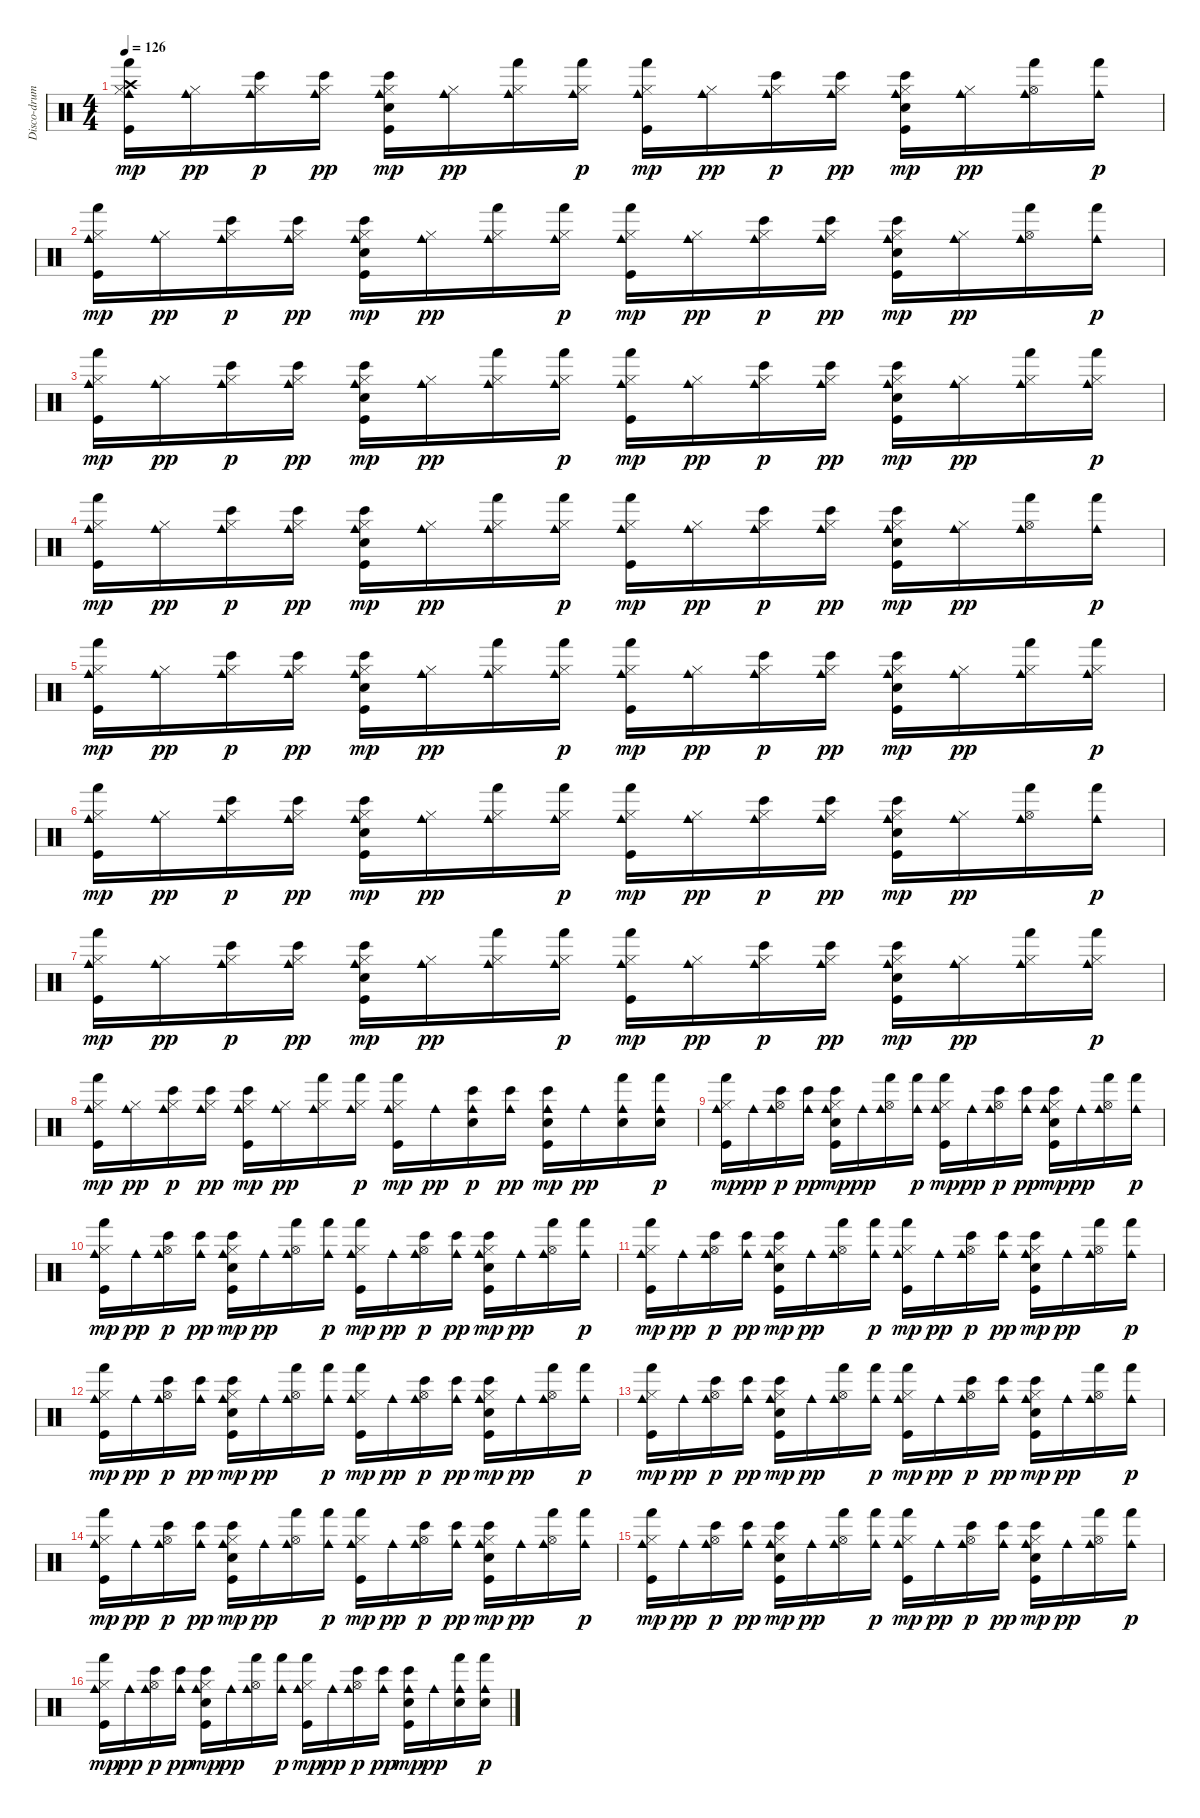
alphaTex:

\track ("Disco-drums !" "Disco-drum") {instrument percussion}
\staff {score}
\articulation defaults
\ts (4 4)
\tempo 126
\clef neutral
\ks c
("Hi-Hat (closed)" "Kick (hit)" "Crash high (hit)" "Cowbell medium (hit)" "Hand (hit)").16{dy mp} ("Hi-Hat (closed)" "Cowbell medium (hit)").16{dy pp} ("Hi-Hat (closed)" "Cowbell medium (hit)" "Bongo High (hit)").16{dy p} ("Hi-Hat (closed)" "Cowbell medium (hit)" "Bongo High (hit)").16{dy pp} ("Hi-Hat (closed)" "Kick (hit)" "Snare (hit) 2" "Cowbell medium (hit)" "Bongo High (hit)").16{dy mp} ("Hi-Hat (closed)" "Cowbell medium (hit)").16{dy pp} ("Hi-Hat (closed)" "Cowbell medium (hit)" "Hand (hit)").16 ("Hi-Hat (closed)" "Cowbell medium (hit)" "Hand (hit)").16{dy p} ("Hi-Hat (closed)" "Kick (hit)" "Cowbell medium (hit)" "Hand (hit)").16{dy mp} ("Hi-Hat (closed)" "Cowbell medium (hit)").16{dy pp} ("Hi-Hat (closed)" "Cowbell medium (hit)" "Bongo High (hit)").16{dy p} ("Hi-Hat (closed)" "Cowbell medium (hit)" "Bongo High (hit)").16{dy pp} ("Hi-Hat (closed)" "Kick (hit)" "Snare (hit) 2" "Cowbell medium (hit)" "Bongo High (hit)").16{dy mp} ("Hi-Hat (closed)" "Cowbell medium (hit)").16{dy pp} ("Hi-Hat (open)" "Cowbell medium (hit)" "Hand (hit)").16 ("Cowbell medium (hit)" "Hand (hit)").16{dy p} |
("Hi-Hat (closed)" "Kick (hit)" "Cowbell medium (hit)" "Hand (hit)").16{dy mp} ("Hi-Hat (closed)" "Cowbell medium (hit)").16{dy pp} ("Hi-Hat (closed)" "Cowbell medium (hit)" "Bongo High (hit)").16{dy p} ("Hi-Hat (closed)" "Cowbell medium (hit)" "Bongo High (hit)").16{dy pp} ("Hi-Hat (closed)" "Kick (hit)" "Snare (hit) 2" "Cowbell medium (hit)" "Bongo High (hit)").16{dy mp} ("Hi-Hat (closed)" "Cowbell medium (hit)").16{dy pp} ("Hi-Hat (closed)" "Cowbell medium (hit)" "Hand (hit)").16 ("Hi-Hat (closed)" "Cowbell medium (hit)" "Hand (hit)").16{dy p} ("Hi-Hat (closed)" "Kick (hit)" "Cowbell medium (hit)" "Hand (hit)").16{dy mp} ("Hi-Hat (closed)" "Cowbell medium (hit)").16{dy pp} ("Hi-Hat (closed)" "Cowbell medium (hit)" "Bongo High (hit)").16{dy p} ("Hi-Hat (closed)" "Cowbell medium (hit)" "Bongo High (hit)").16{dy pp} ("Hi-Hat (closed)" "Kick (hit)" "Snare (hit) 2" "Cowbell medium (hit)" "Bongo High (hit)").16{dy mp} ("Hi-Hat (closed)" "Cowbell medium (hit)").16{dy pp} ("Hi-Hat (open)" "Cowbell medium (hit)" "Hand (hit)").16 ("Cowbell medium (hit)" "Hand (hit)").16{dy p} |
("Hi-Hat (closed)" "Kick (hit)" "Cowbell medium (hit)" "Hand (hit)").16{dy mp} ("Hi-Hat (closed)" "Cowbell medium (hit)").16{dy pp} ("Hi-Hat (closed)" "Cowbell medium (hit)" "Bongo High (hit)").16{dy p} ("Hi-Hat (closed)" "Cowbell medium (hit)" "Bongo High (hit)").16{dy pp} ("Hi-Hat (closed)" "Kick (hit)" "Snare (hit) 2" "Cowbell medium (hit)" "Bongo High (hit)").16{dy mp} ("Hi-Hat (closed)" "Cowbell medium (hit)").16{dy pp} ("Hi-Hat (closed)" "Cowbell medium (hit)" "Hand (hit)").16 ("Hi-Hat (closed)" "Cowbell medium (hit)" "Hand (hit)").16{dy p} ("Hi-Hat (closed)" "Kick (hit)" "Cowbell medium (hit)" "Hand (hit)").16{dy mp} ("Hi-Hat (closed)" "Cowbell medium (hit)").16{dy pp} ("Hi-Hat (closed)" "Cowbell medium (hit)" "Bongo High (hit)").16{dy p} ("Hi-Hat (closed)" "Cowbell medium (hit)" "Bongo High (hit)").16{dy pp} ("Hi-Hat (closed)" "Kick (hit)" "Snare (hit) 2" "Cowbell medium (hit)" "Bongo High (hit)").16{dy mp} ("Hi-Hat (closed)" "Cowbell medium (hit)").16{dy pp} ("Hi-Hat (closed)" "Cowbell medium (hit)" "Hand (hit)").16 ("Hi-Hat (closed)" "Cowbell medium (hit)" "Hand (hit)").16{dy p} |
("Hi-Hat (closed)" "Kick (hit)" "Cowbell medium (hit)" "Hand (hit)").16{dy mp} ("Hi-Hat (closed)" "Cowbell medium (hit)").16{dy pp} ("Hi-Hat (closed)" "Cowbell medium (hit)" "Bongo High (hit)").16{dy p} ("Hi-Hat (closed)" "Cowbell medium (hit)" "Bongo High (hit)").16{dy pp} ("Hi-Hat (closed)" "Kick (hit)" "Snare (hit) 2" "Cowbell medium (hit)" "Bongo High (hit)").16{dy mp} ("Hi-Hat (closed)" "Cowbell medium (hit)").16{dy pp} ("Hi-Hat (closed)" "Cowbell medium (hit)" "Hand (hit)").16 ("Hi-Hat (closed)" "Cowbell medium (hit)" "Hand (hit)").16{dy p} ("Hi-Hat (closed)" "Kick (hit)" "Cowbell medium (hit)" "Hand (hit)").16{dy mp} ("Hi-Hat (closed)" "Cowbell medium (hit)").16{dy pp} ("Hi-Hat (closed)" "Cowbell medium (hit)" "Bongo High (hit)").16{dy p} ("Hi-Hat (closed)" "Cowbell medium (hit)" "Bongo High (hit)").16{dy pp} ("Hi-Hat (closed)" "Kick (hit)" "Snare (hit) 2" "Cowbell medium (hit)" "Bongo High (hit)").16{dy mp} ("Hi-Hat (closed)" "Cowbell medium (hit)").16{dy pp} ("Hi-Hat (open)" "Cowbell medium (hit)" "Hand (hit)").16 ("Cowbell medium (hit)" "Hand (hit)").16{dy p} |
("Hi-Hat (closed)" "Kick (hit)" "Cowbell medium (hit)" "Hand (hit)").16{dy mp} ("Hi-Hat (closed)" "Cowbell medium (hit)").16{dy pp} ("Hi-Hat (closed)" "Cowbell medium (hit)" "Bongo High (hit)").16{dy p} ("Hi-Hat (closed)" "Cowbell medium (hit)" "Bongo High (hit)").16{dy pp} ("Hi-Hat (closed)" "Kick (hit)" "Snare (hit) 2" "Cowbell medium (hit)" "Bongo High (hit)").16{dy mp} ("Hi-Hat (closed)" "Cowbell medium (hit)").16{dy pp} ("Hi-Hat (closed)" "Cowbell medium (hit)" "Hand (hit)").16 ("Hi-Hat (closed)" "Cowbell medium (hit)" "Hand (hit)").16{dy p} ("Hi-Hat (closed)" "Kick (hit)" "Cowbell medium (hit)" "Hand (hit)").16{dy mp} ("Hi-Hat (closed)" "Cowbell medium (hit)").16{dy pp} ("Hi-Hat (closed)" "Cowbell medium (hit)" "Bongo High (hit)").16{dy p} ("Hi-Hat (closed)" "Cowbell medium (hit)" "Bongo High (hit)").16{dy pp} ("Hi-Hat (closed)" "Kick (hit)" "Snare (hit) 2" "Cowbell medium (hit)" "Bongo High (hit)").16{dy mp} ("Hi-Hat (closed)" "Cowbell medium (hit)").16{dy pp} ("Hi-Hat (closed)" "Cowbell medium (hit)" "Hand (hit)").16 ("Hi-Hat (closed)" "Cowbell medium (hit)" "Hand (hit)").16{dy p} |
("Hi-Hat (closed)" "Kick (hit)" "Cowbell medium (hit)" "Hand (hit)").16{dy mp} ("Hi-Hat (closed)" "Cowbell medium (hit)").16{dy pp} ("Hi-Hat (closed)" "Cowbell medium (hit)" "Bongo High (hit)").16{dy p} ("Hi-Hat (closed)" "Cowbell medium (hit)" "Bongo High (hit)").16{dy pp} ("Hi-Hat (closed)" "Kick (hit)" "Snare (hit) 2" "Cowbell medium (hit)" "Bongo High (hit)").16{dy mp} ("Hi-Hat (closed)" "Cowbell medium (hit)").16{dy pp} ("Hi-Hat (closed)" "Cowbell medium (hit)" "Hand (hit)").16 ("Hi-Hat (closed)" "Cowbell medium (hit)" "Hand (hit)").16{dy p} ("Hi-Hat (closed)" "Kick (hit)" "Cowbell medium (hit)" "Hand (hit)").16{dy mp} ("Hi-Hat (closed)" "Cowbell medium (hit)").16{dy pp} ("Hi-Hat (closed)" "Cowbell medium (hit)" "Bongo High (hit)").16{dy p} ("Hi-Hat (closed)" "Cowbell medium (hit)" "Bongo High (hit)").16{dy pp} ("Hi-Hat (closed)" "Kick (hit)" "Snare (hit) 2" "Cowbell medium (hit)" "Bongo High (hit)").16{dy mp} ("Hi-Hat (closed)" "Cowbell medium (hit)").16{dy pp} ("Hi-Hat (open)" "Cowbell medium (hit)" "Hand (hit)").16 ("Cowbell medium (hit)" "Hand (hit)").16{dy p} |
("Hi-Hat (closed)" "Kick (hit)" "Cowbell medium (hit)" "Hand (hit)").16{dy mp} ("Hi-Hat (closed)" "Cowbell medium (hit)").16{dy pp} ("Hi-Hat (closed)" "Cowbell medium (hit)" "Bongo High (hit)").16{dy p} ("Hi-Hat (closed)" "Cowbell medium (hit)" "Bongo High (hit)").16{dy pp} ("Hi-Hat (closed)" "Kick (hit)" "Snare (hit) 2" "Cowbell medium (hit)" "Bongo High (hit)").16{dy mp} ("Hi-Hat (closed)" "Cowbell medium (hit)").16{dy pp} ("Hi-Hat (closed)" "Cowbell medium (hit)" "Hand (hit)").16 ("Hi-Hat (closed)" "Cowbell medium (hit)" "Hand (hit)").16{dy p} ("Hi-Hat (closed)" "Kick (hit)" "Cowbell medium (hit)" "Hand (hit)").16{dy mp} ("Hi-Hat (closed)" "Cowbell medium (hit)").16{dy pp} ("Hi-Hat (closed)" "Cowbell medium (hit)" "Bongo High (hit)").16{dy p} ("Hi-Hat (closed)" "Cowbell medium (hit)" "Bongo High (hit)").16{dy pp} ("Hi-Hat (closed)" "Kick (hit)" "Snare (hit) 2" "Cowbell medium (hit)" "Bongo High (hit)").16{dy mp} ("Hi-Hat (closed)" "Cowbell medium (hit)").16{dy pp} ("Hi-Hat (closed)" "Cowbell medium (hit)" "Hand (hit)").16 ("Hi-Hat (closed)" "Cowbell medium (hit)" "Hand (hit)").16{dy p} |
("Hi-Hat (closed)" "Kick (hit)" "Cowbell medium (hit)" "Hand (hit)").16{dy mp} ("Hi-Hat (closed)" "Cowbell medium (hit)").16{dy pp} ("Hi-Hat (closed)" "Cowbell medium (hit)" "Bongo High (hit)").16{dy p} ("Hi-Hat (closed)" "Cowbell medium (hit)" "Bongo High (hit)").16{dy pp} ("Hi-Hat (closed)" "Kick (hit)" "Cowbell medium (hit)" "Bongo High (hit)").16{dy mp} ("Hi-Hat (closed)" "Cowbell medium (hit)").16{dy pp} ("Hi-Hat (closed)" "Cowbell medium (hit)" "Hand (hit)").16 ("Hi-Hat (closed)" "Cowbell medium (hit)" "Hand (hit)").16{dy p} ("Hi-Hat (closed)" "Kick (hit)" "Cowbell medium (hit)" "Hand (hit)").16{dy mp} "Cowbell medium (hit)".16{dy pp} ("Snare (hit) 2" "Cowbell medium (hit)" "Bongo High (hit)").16{dy p} ("Cowbell medium (hit)" "Bongo High (hit)").16{dy pp} ("Kick (hit)" "Snare (hit) 2" "Cowbell medium (hit)" "Bongo High (hit)").16{dy mp} "Cowbell medium (hit)".16{dy pp} ("Snare (hit) 2" "Cowbell medium (hit)" "Hand (hit)").16 ("Snare (hit) 2" "Cowbell medium (hit)" "Hand (hit)").16{dy p} |
("Hi-Hat (closed)" "Kick (hit)" "Cowbell medium (hit)" "Hand (hit)").16{dy mp} "Cowbell medium (hit)".16{dy pp} ("Hi-Hat (open)" "Cowbell medium (hit)" "Bongo High (hit)").16{dy p} ("Cowbell medium (hit)" "Bongo High (hit)").16{dy pp} ("Hi-Hat (closed)" "Kick (hit)" "Snare (hit) 2" "Cowbell medium (hit)" "Bongo High (hit)").16{dy mp} "Cowbell medium (hit)".16{dy pp} ("Hi-Hat (open)" "Cowbell medium (hit)" "Hand (hit)").16 ("Cowbell medium (hit)" "Hand (hit)").16{dy p} ("Hi-Hat (closed)" "Kick (hit)" "Cowbell medium (hit)" "Hand (hit)").16{dy mp} "Cowbell medium (hit)".16{dy pp} ("Hi-Hat (open)" "Cowbell medium (hit)" "Bongo High (hit)").16{dy p} ("Cowbell medium (hit)" "Bongo High (hit)").16{dy pp} ("Hi-Hat (closed)" "Kick (hit)" "Snare (hit) 2" "Cowbell medium (hit)" "Bongo High (hit)").16{dy mp} "Cowbell medium (hit)".16{dy pp} ("Hi-Hat (open)" "Cowbell medium (hit)" "Hand (hit)").16 ("Cowbell medium (hit)" "Hand (hit)").16{dy p} |
("Hi-Hat (closed)" "Kick (hit)" "Cowbell medium (hit)" "Hand (hit)").16{dy mp} "Cowbell medium (hit)".16{dy pp} ("Hi-Hat (open)" "Cowbell medium (hit)" "Bongo High (hit)").16{dy p} ("Cowbell medium (hit)" "Bongo High (hit)").16{dy pp} ("Hi-Hat (closed)" "Kick (hit)" "Snare (hit) 2" "Cowbell medium (hit)" "Bongo High (hit)").16{dy mp} "Cowbell medium (hit)".16{dy pp} ("Hi-Hat (open)" "Cowbell medium (hit)" "Hand (hit)").16 ("Cowbell medium (hit)" "Hand (hit)").16{dy p} ("Hi-Hat (closed)" "Kick (hit)" "Cowbell medium (hit)" "Hand (hit)").16{dy mp} "Cowbell medium (hit)".16{dy pp} ("Hi-Hat (open)" "Cowbell medium (hit)" "Bongo High (hit)").16{dy p} ("Cowbell medium (hit)" "Bongo High (hit)").16{dy pp} ("Hi-Hat (closed)" "Kick (hit)" "Snare (hit) 2" "Cowbell medium (hit)" "Bongo High (hit)").16{dy mp} "Cowbell medium (hit)".16{dy pp} ("Hi-Hat (open)" "Cowbell medium (hit)" "Hand (hit)").16 ("Cowbell medium (hit)" "Hand (hit)").16{dy p} |
("Hi-Hat (closed)" "Kick (hit)" "Cowbell medium (hit)" "Hand (hit)").16{dy mp} "Cowbell medium (hit)".16{dy pp} ("Hi-Hat (open)" "Cowbell medium (hit)" "Bongo High (hit)").16{dy p} ("Cowbell medium (hit)" "Bongo High (hit)").16{dy pp} ("Hi-Hat (closed)" "Kick (hit)" "Snare (hit) 2" "Cowbell medium (hit)" "Bongo High (hit)").16{dy mp} "Cowbell medium (hit)".16{dy pp} ("Hi-Hat (open)" "Cowbell medium (hit)" "Hand (hit)").16 ("Cowbell medium (hit)" "Hand (hit)").16{dy p} ("Hi-Hat (closed)" "Kick (hit)" "Cowbell medium (hit)" "Hand (hit)").16{dy mp} "Cowbell medium (hit)".16{dy pp} ("Hi-Hat (open)" "Cowbell medium (hit)" "Bongo High (hit)").16{dy p} ("Cowbell medium (hit)" "Bongo High (hit)").16{dy pp} ("Hi-Hat (closed)" "Kick (hit)" "Snare (hit) 2" "Cowbell medium (hit)" "Bongo High (hit)").16{dy mp} "Cowbell medium (hit)".16{dy pp} ("Hi-Hat (open)" "Cowbell medium (hit)" "Hand (hit)").16 ("Cowbell medium (hit)" "Hand (hit)").16{dy p} |
("Hi-Hat (closed)" "Kick (hit)" "Cowbell medium (hit)" "Hand (hit)").16{dy mp} "Cowbell medium (hit)".16{dy pp} ("Hi-Hat (open)" "Cowbell medium (hit)" "Bongo High (hit)").16{dy p} ("Cowbell medium (hit)" "Bongo High (hit)").16{dy pp} ("Hi-Hat (closed)" "Kick (hit)" "Snare (hit) 2" "Cowbell medium (hit)" "Bongo High (hit)").16{dy mp} "Cowbell medium (hit)".16{dy pp} ("Hi-Hat (open)" "Cowbell medium (hit)" "Hand (hit)").16 ("Cowbell medium (hit)" "Hand (hit)").16{dy p} ("Hi-Hat (closed)" "Kick (hit)" "Cowbell medium (hit)" "Hand (hit)").16{dy mp} "Cowbell medium (hit)".16{dy pp} ("Hi-Hat (open)" "Cowbell medium (hit)" "Bongo High (hit)").16{dy p} ("Cowbell medium (hit)" "Bongo High (hit)").16{dy pp} ("Hi-Hat (closed)" "Kick (hit)" "Snare (hit) 2" "Cowbell medium (hit)" "Bongo High (hit)").16{dy mp} "Cowbell medium (hit)".16{dy pp} ("Hi-Hat (open)" "Cowbell medium (hit)" "Hand (hit)").16 ("Cowbell medium (hit)" "Hand (hit)").16{dy p} |
("Hi-Hat (closed)" "Kick (hit)" "Cowbell medium (hit)" "Hand (hit)").16{dy mp} "Cowbell medium (hit)".16{dy pp} ("Hi-Hat (open)" "Cowbell medium (hit)" "Bongo High (hit)").16{dy p} ("Cowbell medium (hit)" "Bongo High (hit)").16{dy pp} ("Hi-Hat (closed)" "Kick (hit)" "Snare (hit) 2" "Cowbell medium (hit)" "Bongo High (hit)").16{dy mp} "Cowbell medium (hit)".16{dy pp} ("Hi-Hat (open)" "Cowbell medium (hit)" "Hand (hit)").16 ("Cowbell medium (hit)" "Hand (hit)").16{dy p} ("Hi-Hat (closed)" "Kick (hit)" "Cowbell medium (hit)" "Hand (hit)").16{dy mp} "Cowbell medium (hit)".16{dy pp} ("Hi-Hat (open)" "Cowbell medium (hit)" "Bongo High (hit)").16{dy p} ("Cowbell medium (hit)" "Bongo High (hit)").16{dy pp} ("Hi-Hat (closed)" "Kick (hit)" "Snare (hit) 2" "Cowbell medium (hit)" "Bongo High (hit)").16{dy mp} "Cowbell medium (hit)".16{dy pp} ("Hi-Hat (open)" "Cowbell medium (hit)" "Hand (hit)").16 ("Cowbell medium (hit)" "Hand (hit)").16{dy p} |
("Hi-Hat (closed)" "Kick (hit)" "Cowbell medium (hit)" "Hand (hit)").16{dy mp} "Cowbell medium (hit)".16{dy pp} ("Hi-Hat (open)" "Cowbell medium (hit)" "Bongo High (hit)").16{dy p} ("Cowbell medium (hit)" "Bongo High (hit)").16{dy pp} ("Hi-Hat (closed)" "Kick (hit)" "Snare (hit) 2" "Cowbell medium (hit)" "Bongo High (hit)").16{dy mp} "Cowbell medium (hit)".16{dy pp} ("Hi-Hat (open)" "Cowbell medium (hit)" "Hand (hit)").16 ("Cowbell medium (hit)" "Hand (hit)").16{dy p} ("Hi-Hat (closed)" "Kick (hit)" "Cowbell medium (hit)" "Hand (hit)").16{dy mp} "Cowbell medium (hit)".16{dy pp} ("Hi-Hat (open)" "Cowbell medium (hit)" "Bongo High (hit)").16{dy p} ("Cowbell medium (hit)" "Bongo High (hit)").16{dy pp} ("Hi-Hat (closed)" "Kick (hit)" "Snare (hit) 2" "Cowbell medium (hit)" "Bongo High (hit)").16{dy mp} "Cowbell medium (hit)".16{dy pp} ("Hi-Hat (open)" "Cowbell medium (hit)" "Hand (hit)").16 ("Cowbell medium (hit)" "Hand (hit)").16{dy p} |
("Hi-Hat (closed)" "Kick (hit)" "Cowbell medium (hit)" "Hand (hit)").16{dy mp} "Cowbell medium (hit)".16{dy pp} ("Hi-Hat (open)" "Cowbell medium (hit)" "Bongo High (hit)").16{dy p} ("Cowbell medium (hit)" "Bongo High (hit)").16{dy pp} ("Hi-Hat (closed)" "Kick (hit)" "Snare (hit) 2" "Cowbell medium (hit)" "Bongo High (hit)").16{dy mp} "Cowbell medium (hit)".16{dy pp} ("Hi-Hat (open)" "Cowbell medium (hit)" "Hand (hit)").16 ("Cowbell medium (hit)" "Hand (hit)").16{dy p} ("Hi-Hat (closed)" "Kick (hit)" "Cowbell medium (hit)" "Hand (hit)").16{dy mp} "Cowbell medium (hit)".16{dy pp} ("Hi-Hat (open)" "Cowbell medium (hit)" "Bongo High (hit)").16{dy p} ("Cowbell medium (hit)" "Bongo High (hit)").16{dy pp} ("Hi-Hat (closed)" "Kick (hit)" "Snare (hit) 2" "Cowbell medium (hit)" "Bongo High (hit)").16{dy mp} "Cowbell medium (hit)".16{dy pp} ("Hi-Hat (open)" "Cowbell medium (hit)" "Hand (hit)").16 ("Cowbell medium (hit)" "Hand (hit)").16{dy p} |
("Hi-Hat (closed)" "Kick (hit)" "Cowbell medium (hit)" "Hand (hit)").16{dy mp} "Cowbell medium (hit)".16{dy pp} ("Hi-Hat (open)" "Cowbell medium (hit)" "Bongo High (hit)").16{dy p} ("Cowbell medium (hit)" "Bongo High (hit)").16{dy pp} ("Hi-Hat (closed)" "Kick (hit)" "Snare (hit) 2" "Cowbell medium (hit)" "Bongo High (hit)").16{dy mp} "Cowbell medium (hit)".16{dy pp} ("Hi-Hat (open)" "Cowbell medium (hit)" "Hand (hit)").16 ("Cowbell medium (hit)" "Hand (hit)").16{dy p} ("Hi-Hat (closed)" "Kick (hit)" "Cowbell medium (hit)" "Hand (hit)").16{dy mp} "Cowbell medium (hit)".16{dy pp} ("Hi-Hat (open)" "Cowbell medium (hit)" "Bongo High (hit)").16{dy p} ("Cowbell medium (hit)" "Bongo High (hit)").16{dy pp} ("Kick (hit)" "Snare (hit) 2" "Cowbell medium (hit)" "Bongo High (hit)").16{dy mp} "Cowbell medium (hit)".16{dy pp} ("Snare (hit) 2" "Cowbell medium (hit)" "Hand (hit)").16 ("Snare (hit) 2" "Cowbell medium (hit)" "Hand (hit)").16{dy p}
